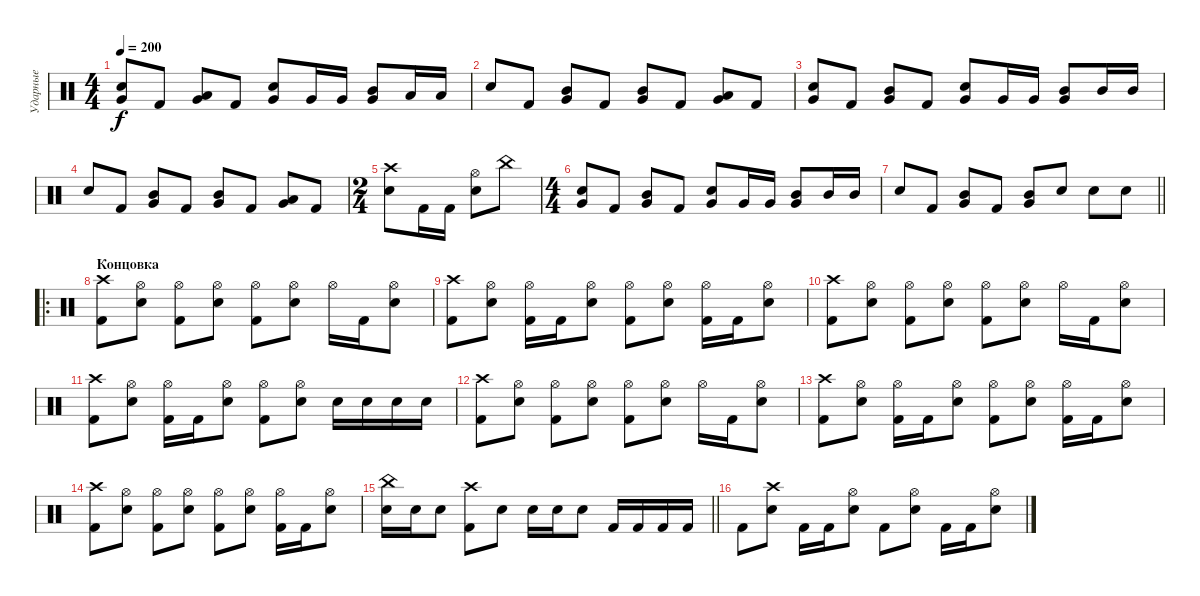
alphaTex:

\track ("Ударные" "Ударные") {instrument percussion}
\staff {score}
\articulation defaults
\ts (4 4)
\tempo 200
\clef neutral
\ks c
("Very Low Tom (hit)" "Electric Snare (hit)").8{dy f} "Kick (hit) 2".8 ("Very Low Tom (hit)" "Low Floor Tom (hit)").8 "Kick (hit) 2".8 ("Very Low Tom (hit)" "Electric Snare (hit)").8 "Very Low Tom (hit)".16 "Very Low Tom (hit)".16 ("Very Low Tom (hit)" "Mid Tom (hit)").8 "Low Floor Tom (hit)".16 "Low Floor Tom (hit)".16 |
"Electric Snare (hit)".8 "Kick (hit) 2".8 ("Very Low Tom (hit)" "Mid Tom (hit)").8 "Kick (hit) 2".8 ("Very Low Tom (hit)" "Mid Tom (hit)").8 "Kick (hit) 2".8 ("Very Low Tom (hit)" "Low Tom (hit)").8 "Kick (hit) 2".8 |
("Very Low Tom (hit)" "Electric Snare (hit)").8 "Kick (hit) 2".8 ("Very Low Tom (hit)" "Mid Tom (hit)").8 "Kick (hit) 2".8 ("Very Low Tom (hit)" "Electric Snare (hit)").8 "Very Low Tom (hit)".16 "Very Low Tom (hit)".16 ("Very Low Tom (hit)" "Mid Tom (hit)").8 "Mid Tom (hit)".16 "Mid Tom (hit)".16 |
"Electric Snare (hit)".8 "Kick (hit) 2".8 ("Very Low Tom (hit)" "Mid Tom (hit)").8 "Kick (hit) 2".8 ("Very Low Tom (hit)" "Mid Tom (hit)").8 "Kick (hit) 2".8 ("Very Low Tom (hit)" "Low Tom (hit)").8 "Kick (hit) 2".8 |
\ts (2 4)
("Electric Snare (hit)" "Crash high (hit)").8 "Kick (hit) 2".16 "Kick (hit) 2".16 ("Electric Snare (hit)" "Hi-Hat (open)").8 "China (hit)".8 |
\ts (4 4)
("Very Low Tom (hit)" "Electric Snare (hit)").8 "Kick (hit) 2".8 ("Very Low Tom (hit)" "Mid Tom (hit)").8 "Kick (hit) 2".8 ("Very Low Tom (hit)" "Electric Snare (hit)").8 "Very Low Tom (hit)".16 "Very Low Tom (hit)".16 ("Very Low Tom (hit)" "Mid Tom (hit)").8 "Mid Tom (hit)".16 "Mid Tom (hit)".16 |
\barLineRight lightlight "Electric Snare (hit)".8 "Kick (hit) 2".8
("Very Low Tom (hit)" "Mid Tom (hit)").8 "Kick (hit) 2".8 ("Very Low Tom (hit)" "Mid Tom (hit)").8 "Electric Snare (hit)".8 "Electric Snare (hit)".8 "Electric Snare (hit)".8 |
\ro
\section ("" "Концовка")
("Crash high (hit)" "Kick (hit) 2").8 ("Hi-Hat (open)" "Electric Snare (hit)").8 ("Hi-Hat (open)" "Kick (hit) 2").8 ("Hi-Hat (open)" "Electric Snare (hit)").8 ("Hi-Hat (open)" "Kick (hit) 2").8 ("Hi-Hat (open)" "Electric Snare (hit)").8 "Hi-Hat (open)".16 "Kick (hit) 2".16 ("Hi-Hat (open)" "Electric Snare (hit)").8 |
("Crash high (hit)" "Kick (hit) 2").8 ("Hi-Hat (open)" "Electric Snare (hit)").8 ("Hi-Hat (open)" "Kick (hit) 2").16 "Kick (hit) 2".16 ("Hi-Hat (open)" "Electric Snare (hit)").8 ("Hi-Hat (open)" "Kick (hit) 2").8 ("Hi-Hat (open)" "Electric Snare (hit)").8 ("Hi-Hat (open)" "Kick (hit) 2").16 "Kick (hit) 2".16 ("Hi-Hat (open)" "Electric Snare (hit)").8 |
("Crash high (hit)" "Kick (hit) 2").8 ("Hi-Hat (open)" "Electric Snare (hit)").8 ("Hi-Hat (open)" "Kick (hit) 2").8 ("Hi-Hat (open)" "Electric Snare (hit)").8 ("Hi-Hat (open)" "Kick (hit) 2").8 ("Hi-Hat (open)" "Electric Snare (hit)").8 "Hi-Hat (open)".16 "Kick (hit) 2".16 ("Hi-Hat (open)" "Electric Snare (hit)").8 |
("Crash high (hit)" "Kick (hit) 2").8 ("Hi-Hat (open)" "Electric Snare (hit)").8 ("Hi-Hat (open)" "Kick (hit) 2").16 "Kick (hit) 2".16 ("Hi-Hat (open)" "Electric Snare (hit)").8 ("Hi-Hat (open)" "Kick (hit) 2").8 ("Hi-Hat (open)" "Electric Snare (hit)").8 "Electric Snare (hit)".16 "Electric Snare (hit)".16 "Electric Snare (hit)".16 "Electric Snare (hit)".16 |
("Crash high (hit)" "Kick (hit) 2").8 ("Hi-Hat (open)" "Electric Snare (hit)").8 ("Hi-Hat (open)" "Kick (hit) 2").8 ("Hi-Hat (open)" "Electric Snare (hit)").8 ("Hi-Hat (open)" "Kick (hit) 2").8 ("Hi-Hat (open)" "Electric Snare (hit)").8 "Hi-Hat (open)".16 "Kick (hit) 2".16 ("Hi-Hat (open)" "Electric Snare (hit)").8 |
("Crash high (hit)" "Kick (hit) 2").8 ("Hi-Hat (open)" "Electric Snare (hit)").8 ("Hi-Hat (open)" "Kick (hit) 2").16 "Kick (hit) 2".16 ("Hi-Hat (open)" "Electric Snare (hit)").8 ("Hi-Hat (open)" "Kick (hit) 2").8 ("Hi-Hat (open)" "Electric Snare (hit)").8 ("Hi-Hat (open)" "Kick (hit) 2").16 "Kick (hit) 2".16 ("Hi-Hat (open)" "Electric Snare (hit)").8 |
("Crash high (hit)" "Kick (hit) 2").8 ("Hi-Hat (open)" "Electric Snare (hit)").8 ("Hi-Hat (open)" "Kick (hit) 2").8 ("Hi-Hat (open)" "Electric Snare (hit)").8 ("Hi-Hat (open)" "Kick (hit) 2").8 ("Hi-Hat (open)" "Electric Snare (hit)").8 ("Hi-Hat (open)" "Kick (hit) 2").16 "Kick (hit) 2".16 ("Hi-Hat (open)" "Electric Snare (hit)").8 |
\barLineRight lightlight
("Electric Snare (hit)" "China (hit)").16 "Electric Snare (hit)".16 "Electric Snare (hit)".8 ("Kick (hit) 2" "Crash high (hit)").8 "Electric Snare (hit)".8 "Electric Snare (hit)".16 "Electric Snare (hit)".16 "Electric Snare (hit)".8 "Kick (hit) 2".16 "Kick (hit) 2".16 "Kick (hit) 2".16 "Kick (hit) 2".16 |
"Kick (hit) 2".8 ("Electric Snare (hit)" "Crash high (hit)").8 "Kick (hit) 2".16 "Kick (hit) 2".16 ("Electric Snare (hit)" "Hi-Hat (open)").8 "Kick (hit) 2".8 ("Electric Snare (hit)" "Hi-Hat (open)").8 "Kick (hit) 2".16 "Kick (hit) 2".16 ("Electric Snare (hit)" "Hi-Hat (open)").8
